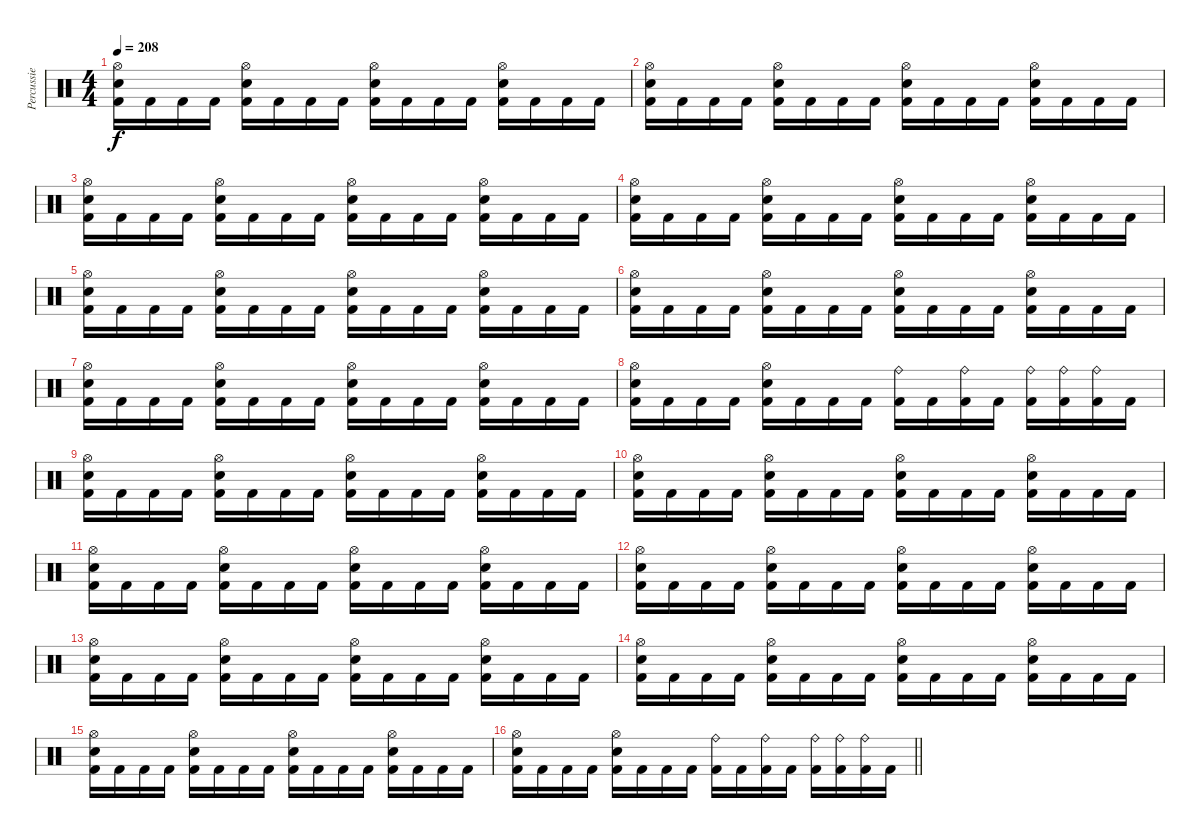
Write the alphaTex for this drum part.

\track ("Percussie" "Percussie") {instrument percussion}
\staff {score}
\articulation defaults
\ts (4 4)
\tempo 208
\clef neutral
\ks c
("Hi-Hat (open)" "Electric Snare (hit)" "Kick (hit) 2").16{dy f} "Kick (hit) 2".16 "Kick (hit) 2".16 "Kick (hit) 2".16 ("Hi-Hat (open)" "Electric Snare (hit)" "Kick (hit) 2").16 "Kick (hit) 2".16 "Kick (hit) 2".16 "Kick (hit) 2".16 ("Hi-Hat (open)" "Electric Snare (hit)" "Kick (hit) 2").16 "Kick (hit) 2".16 "Kick (hit) 2".16 "Kick (hit) 2".16 ("Hi-Hat (open)" "Electric Snare (hit)" "Kick (hit) 2").16 "Kick (hit) 2".16 "Kick (hit) 2".16 "Kick (hit) 2".16 |
("Hi-Hat (open)" "Electric Snare (hit)" "Kick (hit) 2").16 "Kick (hit) 2".16 "Kick (hit) 2".16 "Kick (hit) 2".16 ("Hi-Hat (open)" "Electric Snare (hit)" "Kick (hit) 2").16 "Kick (hit) 2".16 "Kick (hit) 2".16 "Kick (hit) 2".16 ("Hi-Hat (open)" "Electric Snare (hit)" "Kick (hit) 2").16 "Kick (hit) 2".16 "Kick (hit) 2".16 "Kick (hit) 2".16 ("Hi-Hat (open)" "Electric Snare (hit)" "Kick (hit) 2").16 "Kick (hit) 2".16 "Kick (hit) 2".16 "Kick (hit) 2".16 |
("Hi-Hat (open)" "Electric Snare (hit)" "Kick (hit) 2").16 "Kick (hit) 2".16 "Kick (hit) 2".16 "Kick (hit) 2".16 ("Hi-Hat (open)" "Electric Snare (hit)" "Kick (hit) 2").16 "Kick (hit) 2".16 "Kick (hit) 2".16 "Kick (hit) 2".16 ("Hi-Hat (open)" "Electric Snare (hit)" "Kick (hit) 2").16 "Kick (hit) 2".16 "Kick (hit) 2".16 "Kick (hit) 2".16 ("Hi-Hat (open)" "Electric Snare (hit)" "Kick (hit) 2").16 "Kick (hit) 2".16 "Kick (hit) 2".16 "Kick (hit) 2".16 |
("Hi-Hat (open)" "Electric Snare (hit)" "Kick (hit) 2").16 "Kick (hit) 2".16 "Kick (hit) 2".16 "Kick (hit) 2".16 ("Hi-Hat (open)" "Electric Snare (hit)" "Kick (hit) 2").16 "Kick (hit) 2".16 "Kick (hit) 2".16 "Kick (hit) 2".16 ("Hi-Hat (open)" "Electric Snare (hit)" "Kick (hit) 2").16 "Kick (hit) 2".16 "Kick (hit) 2".16 "Kick (hit) 2".16 ("Hi-Hat (open)" "Electric Snare (hit)" "Kick (hit) 2").16 "Kick (hit) 2".16 "Kick (hit) 2".16 "Kick (hit) 2".16 |
("Hi-Hat (open)" "Electric Snare (hit)" "Kick (hit) 2").16 "Kick (hit) 2".16 "Kick (hit) 2".16 "Kick (hit) 2".16 ("Hi-Hat (open)" "Electric Snare (hit)" "Kick (hit) 2").16 "Kick (hit) 2".16 "Kick (hit) 2".16 "Kick (hit) 2".16 ("Hi-Hat (open)" "Electric Snare (hit)" "Kick (hit) 2").16 "Kick (hit) 2".16 "Kick (hit) 2".16 "Kick (hit) 2".16 ("Hi-Hat (open)" "Electric Snare (hit)" "Kick (hit) 2").16 "Kick (hit) 2".16 "Kick (hit) 2".16 "Kick (hit) 2".16 |
("Hi-Hat (open)" "Electric Snare (hit)" "Kick (hit) 2").16 "Kick (hit) 2".16 "Kick (hit) 2".16 "Kick (hit) 2".16 ("Hi-Hat (open)" "Electric Snare (hit)" "Kick (hit) 2").16 "Kick (hit) 2".16 "Kick (hit) 2".16 "Kick (hit) 2".16 ("Hi-Hat (open)" "Electric Snare (hit)" "Kick (hit) 2").16 "Kick (hit) 2".16 "Kick (hit) 2".16 "Kick (hit) 2".16 ("Hi-Hat (open)" "Electric Snare (hit)" "Kick (hit) 2").16 "Kick (hit) 2".16 "Kick (hit) 2".16 "Kick (hit) 2".16 |
("Hi-Hat (open)" "Electric Snare (hit)" "Kick (hit) 2").16 "Kick (hit) 2".16 "Kick (hit) 2".16 "Kick (hit) 2".16 ("Hi-Hat (open)" "Electric Snare (hit)" "Kick (hit) 2").16 "Kick (hit) 2".16 "Kick (hit) 2".16 "Kick (hit) 2".16 ("Hi-Hat (open)" "Electric Snare (hit)" "Kick (hit) 2").16 "Kick (hit) 2".16 "Kick (hit) 2".16 "Kick (hit) 2".16 ("Hi-Hat (open)" "Electric Snare (hit)" "Kick (hit) 2").16 "Kick (hit) 2".16 "Kick (hit) 2".16 "Kick (hit) 2".16 |
("Hi-Hat (open)" "Electric Snare (hit)" "Kick (hit) 2").16 "Kick (hit) 2".16 "Kick (hit) 2".16 "Kick (hit) 2".16 ("Hi-Hat (open)" "Electric Snare (hit)" "Kick (hit) 2").16 "Kick (hit) 2".16 "Kick (hit) 2".16 "Kick (hit) 2".16 ("Ride (bell)" "Kick (hit) 2").16 "Kick (hit) 2".16 ("Ride (bell)" "Kick (hit) 2").16 "Kick (hit) 2".16 ("Ride (bell)" "Kick (hit) 2").16 ("Ride (bell)" "Kick (hit) 2").16 ("Ride (bell)" "Kick (hit) 2").16 "Kick (hit) 2".16 |
("Hi-Hat (open)" "Electric Snare (hit)" "Kick (hit) 2").16 "Kick (hit) 2".16 "Kick (hit) 2".16 "Kick (hit) 2".16 ("Hi-Hat (open)" "Electric Snare (hit)" "Kick (hit) 2").16 "Kick (hit) 2".16 "Kick (hit) 2".16 "Kick (hit) 2".16 ("Hi-Hat (open)" "Electric Snare (hit)" "Kick (hit) 2").16 "Kick (hit) 2".16 "Kick (hit) 2".16 "Kick (hit) 2".16 ("Hi-Hat (open)" "Electric Snare (hit)" "Kick (hit) 2").16 "Kick (hit) 2".16 "Kick (hit) 2".16 "Kick (hit) 2".16 |
("Hi-Hat (open)" "Electric Snare (hit)" "Kick (hit) 2").16 "Kick (hit) 2".16 "Kick (hit) 2".16 "Kick (hit) 2".16 ("Hi-Hat (open)" "Electric Snare (hit)" "Kick (hit) 2").16 "Kick (hit) 2".16 "Kick (hit) 2".16 "Kick (hit) 2".16 ("Hi-Hat (open)" "Electric Snare (hit)" "Kick (hit) 2").16 "Kick (hit) 2".16 "Kick (hit) 2".16 "Kick (hit) 2".16 ("Hi-Hat (open)" "Electric Snare (hit)" "Kick (hit) 2").16 "Kick (hit) 2".16 "Kick (hit) 2".16 "Kick (hit) 2".16 |
("Hi-Hat (open)" "Electric Snare (hit)" "Kick (hit) 2").16 "Kick (hit) 2".16 "Kick (hit) 2".16 "Kick (hit) 2".16 ("Hi-Hat (open)" "Electric Snare (hit)" "Kick (hit) 2").16 "Kick (hit) 2".16 "Kick (hit) 2".16 "Kick (hit) 2".16 ("Hi-Hat (open)" "Electric Snare (hit)" "Kick (hit) 2").16 "Kick (hit) 2".16 "Kick (hit) 2".16 "Kick (hit) 2".16 ("Hi-Hat (open)" "Electric Snare (hit)" "Kick (hit) 2").16 "Kick (hit) 2".16 "Kick (hit) 2".16 "Kick (hit) 2".16 |
("Hi-Hat (open)" "Electric Snare (hit)" "Kick (hit) 2").16 "Kick (hit) 2".16 "Kick (hit) 2".16 "Kick (hit) 2".16 ("Hi-Hat (open)" "Electric Snare (hit)" "Kick (hit) 2").16 "Kick (hit) 2".16 "Kick (hit) 2".16 "Kick (hit) 2".16 ("Hi-Hat (open)" "Electric Snare (hit)" "Kick (hit) 2").16 "Kick (hit) 2".16 "Kick (hit) 2".16 "Kick (hit) 2".16 ("Hi-Hat (open)" "Electric Snare (hit)" "Kick (hit) 2").16 "Kick (hit) 2".16 "Kick (hit) 2".16 "Kick (hit) 2".16 |
("Hi-Hat (open)" "Electric Snare (hit)" "Kick (hit) 2").16 "Kick (hit) 2".16 "Kick (hit) 2".16 "Kick (hit) 2".16 ("Hi-Hat (open)" "Electric Snare (hit)" "Kick (hit) 2").16 "Kick (hit) 2".16 "Kick (hit) 2".16 "Kick (hit) 2".16 ("Hi-Hat (open)" "Electric Snare (hit)" "Kick (hit) 2").16 "Kick (hit) 2".16 "Kick (hit) 2".16 "Kick (hit) 2".16 ("Hi-Hat (open)" "Electric Snare (hit)" "Kick (hit) 2").16 "Kick (hit) 2".16 "Kick (hit) 2".16 "Kick (hit) 2".16 |
("Hi-Hat (open)" "Electric Snare (hit)" "Kick (hit) 2").16 "Kick (hit) 2".16 "Kick (hit) 2".16 "Kick (hit) 2".16 ("Hi-Hat (open)" "Electric Snare (hit)" "Kick (hit) 2").16 "Kick (hit) 2".16 "Kick (hit) 2".16 "Kick (hit) 2".16 ("Hi-Hat (open)" "Electric Snare (hit)" "Kick (hit) 2").16 "Kick (hit) 2".16 "Kick (hit) 2".16 "Kick (hit) 2".16 ("Hi-Hat (open)" "Electric Snare (hit)" "Kick (hit) 2").16 "Kick (hit) 2".16 "Kick (hit) 2".16 "Kick (hit) 2".16 |
("Hi-Hat (open)" "Electric Snare (hit)" "Kick (hit) 2").16 "Kick (hit) 2".16 "Kick (hit) 2".16 "Kick (hit) 2".16 ("Hi-Hat (open)" "Electric Snare (hit)" "Kick (hit) 2").16 "Kick (hit) 2".16 "Kick (hit) 2".16 "Kick (hit) 2".16 ("Hi-Hat (open)" "Electric Snare (hit)" "Kick (hit) 2").16 "Kick (hit) 2".16 "Kick (hit) 2".16 "Kick (hit) 2".16 ("Hi-Hat (open)" "Electric Snare (hit)" "Kick (hit) 2").16 "Kick (hit) 2".16 "Kick (hit) 2".16 "Kick (hit) 2".16 |
\barLineRight lightlight
("Hi-Hat (open)" "Electric Snare (hit)" "Kick (hit) 2").16 "Kick (hit) 2".16 "Kick (hit) 2".16 "Kick (hit) 2".16 ("Hi-Hat (open)" "Electric Snare (hit)" "Kick (hit) 2").16 "Kick (hit) 2".16 "Kick (hit) 2".16 "Kick (hit) 2".16 ("Ride (bell)" "Kick (hit) 2").16 "Kick (hit) 2".16 ("Ride (bell)" "Kick (hit) 2").16 "Kick (hit) 2".16 ("Ride (bell)" "Kick (hit) 2").16 ("Ride (bell)" "Kick (hit) 2").16 ("Ride (bell)" "Kick (hit) 2").16 "Kick (hit) 2".16
